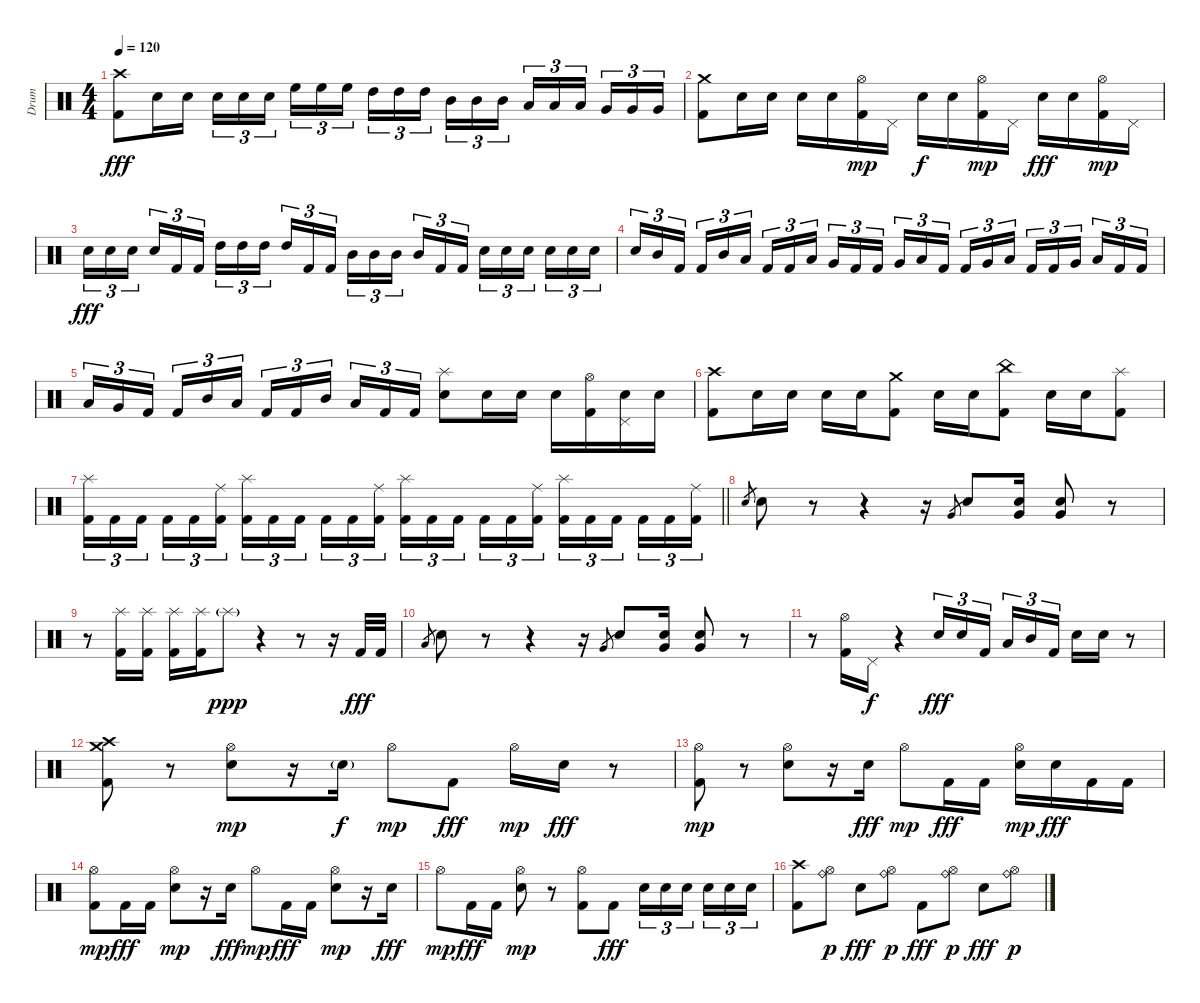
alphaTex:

\track ("Drum" "Drum") {instrument percussion}
\staff {score}
\articulation defaults
\ts (4 4)
\tempo 120
\clef neutral
\ks c
("Kick (hit) 2" "Crash high (hit)").8{dy fff} "Electric Snare (hit)".16 "Electric Snare (hit)".16 "Electric Snare (hit)".16{tu (3 2)} "Electric Snare (hit)".16{tu (3 2)} "Electric Snare (hit)".16{tu (3 2) beam splitsecondary} "High Floor Tom (hit)".16{tu (3 2)} "High Floor Tom (hit)".16{tu (3 2)} "High Floor Tom (hit)".16{tu (3 2)} "High Tom (hit)".16{tu (3 2)} "High Tom (hit)".16{tu (3 2)} "High Tom (hit)".16{tu (3 2) beam splitsecondary} "Mid Tom (hit)".16{tu (3 2)} "Mid Tom (hit)".16{tu (3 2)} "Mid Tom (hit)".16{tu (3 2)} "Low Tom (hit)".16{tu (3 2)} "Low Tom (hit)".16{tu (3 2)} "Low Tom (hit)".16{tu (3 2) beam splitsecondary} "Very Low Tom (hit)".16{tu (3 2)} "Very Low Tom (hit)".16{tu (3 2)} "Very Low Tom (hit)".16{tu (3 2)} |
("Kick (hit) 2" "Crash medium (hit)").8 "Electric Snare (hit)".16 "Electric Snare (hit)".16 "Electric Snare (hit)".16 "Electric Snare (hit)".16 ("Kick (hit) 2" "Hi-Hat (open)").16{dy mp} "Pedal Hi-Hat (hit)".16 "Electric Snare (hit)".16{dy f} "Electric Snare (hit)".16 ("Kick (hit) 2" "Hi-Hat (open)").16{dy mp} "Pedal Hi-Hat (hit)".16 "Electric Snare (hit)".16{dy fff} "Electric Snare (hit)".16 ("Kick (hit) 2" "Hi-Hat (open)").16{dy mp} "Pedal Hi-Hat (hit)".16 |
"Electric Snare (hit)".16{tu (3 2) dy fff} "Electric Snare (hit)".16{tu (3 2)} "Electric Snare (hit)".16{tu (3 2) beam splitsecondary} "Electric Snare (hit)".16{tu (3 2)} "Kick (hit) 2".16{tu (3 2)} "Kick (hit) 2".16{tu (3 2)} "High Tom (hit)".16{tu (3 2)} "High Tom (hit)".16{tu (3 2)} "High Tom (hit)".16{tu (3 2) beam splitsecondary} "High Tom (hit)".16{tu (3 2)} "Kick (hit) 2".16{tu (3 2)} "Kick (hit) 2".16{tu (3 2)} "Mid Tom (hit)".16{tu (3 2)} "Mid Tom (hit)".16{tu (3 2)} "Mid Tom (hit)".16{tu (3 2) beam splitsecondary} "Mid Tom (hit)".16{tu (3 2)} "Kick (hit) 2".16{tu (3 2)} "Kick (hit) 2".16{tu (3 2)} "Electric Snare (hit)".16{tu (3 2)} "Electric Snare (hit)".16{tu (3 2)} "Electric Snare (hit)".16{tu (3 2) beam splitsecondary} "Electric Snare (hit)".16{tu (3 2)} "Electric Snare (hit)".16{tu (3 2)} "Electric Snare (hit)".16{tu (3 2)} |
"Electric Snare (hit)".16{tu (3 2)} "Mid Tom (hit)".16{tu (3 2)} "Kick (hit) 2".16{tu (3 2) beam splitsecondary} "Kick (hit) 2".16{tu (3 2)} "Mid Tom (hit)".16{tu (3 2)} "Low Tom (hit)".16{tu (3 2)} "Kick (hit) 2".16{tu (3 2)} "Kick (hit) 2".16{tu (3 2)} "Low Tom (hit)".16{tu (3 2) beam splitsecondary} "Very Low Tom (hit)".16{tu (3 2)} "Kick (hit) 2".16{tu (3 2)} "Kick (hit) 2".16{tu (3 2)} "Very Low Tom (hit)".16{tu (3 2)} "Low Floor Tom (hit)".16{tu (3 2)} "Kick (hit) 2".16{tu (3 2) beam splitsecondary} "Kick (hit) 2".16{tu (3 2)} "Very Low Tom (hit)".16{tu (3 2)} "Low Floor Tom (hit)".16{tu (3 2)} "Kick (hit) 2".16{tu (3 2)} "Kick (hit) 2".16{tu (3 2)} "Very Low Tom (hit)".16{tu (3 2) beam splitsecondary} "Low Floor Tom (hit)".16{tu (3 2)} "Kick (hit) 2".16{tu (3 2)} "Kick (hit) 2".16{tu (3 2)} |
"Low Tom (hit)".16{tu (3 2)} "Very Low Tom (hit)".16{tu (3 2)} "Kick (hit) 2".16{tu (3 2) beam splitsecondary} "Kick (hit) 2".16{tu (3 2)} "Mid Tom (hit)".16{tu (3 2)} "Low Tom (hit)".16{tu (3 2)} "Kick (hit) 2".16{tu (3 2)} "Kick (hit) 2".16{tu (3 2)} "Mid Tom (hit)".16{tu (3 2) beam splitsecondary} "Low Tom (hit)".16{tu (3 2)} "Kick (hit) 2".16{tu (3 2)} "Kick (hit) 2".16{tu (3 2)} ("Electric Snare (hit)" "Splash (hit)").8 "Electric Snare (hit)".16 "Electric Snare (hit)".16 "Electric Snare (hit)".16 ("Kick (hit) 2" "Hi-Hat (open)").16 ("Electric Snare (hit)" "Pedal Hi-Hat (hit)").16 "Electric Snare (hit)".16 |
("Kick (hit) 2" "Crash high (hit)").8 "Electric Snare (hit)".16 "Electric Snare (hit)".16 "Electric Snare (hit)".16 "Electric Snare (hit)".16 ("Kick (hit) 2" "Crash medium (hit)").8 "Electric Snare (hit)".16 "Electric Snare (hit)".16 ("Kick (hit) 2" "China (hit)").8 "Electric Snare (hit)".16 "Electric Snare (hit)".16 ("Kick (hit) 2" "Splash (hit)").8 |
\barLineRight lightlight
("Kick (hit) 2" "Splash (hit)").16{tu (3 2)} "Kick (hit) 2".16{tu (3 2)} "Kick (hit) 2".16{tu (3 2) beam splitsecondary} "Kick (hit) 2".16{tu (3 2)} "Kick (hit) 2".16{tu (3 2)} ("Kick (hit) 2" "Ride (middle)").16{tu (3 2)} ("Kick (hit) 2" "Splash (hit)").16{tu (3 2)} "Kick (hit) 2".16{tu (3 2)} "Kick (hit) 2".16{tu (3 2) beam splitsecondary} "Kick (hit) 2".16{tu (3 2)} "Kick (hit) 2".16{tu (3 2)} ("Kick (hit) 2" "Ride (middle)").16{tu (3 2)} ("Kick (hit) 2" "Splash (hit)").16{tu (3 2)} "Kick (hit) 2".16{tu (3 2)} "Kick (hit) 2".16{tu (3 2) beam splitsecondary} "Kick (hit) 2".16{tu (3 2)} "Kick (hit) 2".16{tu (3 2)} ("Kick (hit) 2" "Ride (middle)").16{tu (3 2)} ("Kick (hit) 2" "Splash (hit)").16{tu (3 2)} "Kick (hit) 2".16{tu (3 2)} "Kick (hit) 2".16{tu (3 2) beam splitsecondary} "Kick (hit) 2".16{tu (3 2)} "Kick (hit) 2".16{tu (3 2)} ("Kick (hit) 2" "Ride (middle)").16{tu (3 2)} |
"Electric Snare (hit)".8{gr} "Electric Snare (hit)".8 r.8 r.4 r.16 "Very Low Tom (hit)".8{gr} "Electric Snare (hit)".8 ("Electric Snare (hit)" "Very Low Tom (hit)").16 ("Electric Snare (hit)" "Very Low Tom (hit)").8 r.8 |
r.8 ("Kick (hit) 2" "Splash (hit)").16 ("Kick (hit) 2" "Splash (hit)").16 ("Kick (hit) 2" "Splash (hit)").16 ("Kick (hit) 2" "Splash (hit)").16 "Splash (hit)"{g}.8{dy ppp} r.4 r.8 r.16 "Kick (hit) 2".32{dy fff} "Kick (hit) 2".32 |
"Low Floor Tom (hit)".8{gr} "Electric Snare (hit)".8 r.8 r.4 r.16 "Very Low Tom (hit)".8{gr} "Electric Snare (hit)".8 ("Electric Snare (hit)" "Very Low Tom (hit)").16 ("Electric Snare (hit)" "Very Low Tom (hit)").8 r.8 |
r.8 ("Kick (hit) 2" "Hi-Hat (open)").16 "Pedal Hi-Hat (hit)".16{dy f} r.4 "Electric Snare (hit)".16{tu (3 2) dy fff} "Electric Snare (hit)".16{tu (3 2)} "Kick (hit) 2".16{tu (3 2) beam splitsecondary} "Low Tom (hit)".16{tu (3 2)} "Mid Tom (hit)".16{tu (3 2)} "Kick (hit) 2".16{tu (3 2)} "Electric Snare (hit)".16 "Electric Snare (hit)".16 r.8 |
("Kick (hit) 2" "Crash high (hit)" "Crash medium (hit)").8 r.8 ("Electric Snare (hit)" "Hi-Hat (open)").8{dy mp} r.16 "Electric Snare (hit)"{g}.16{dy f} "Hi-Hat (open)".8{dy mp} "Kick (hit) 2".8{dy fff} "Hi-Hat (open)".16{dy mp} "Electric Snare (hit)".16{dy fff} r.8 |
("Kick (hit) 2" "Hi-Hat (open)").8{dy mp} r.8 ("Electric Snare (hit)" "Hi-Hat (open)").8 r.16 "Electric Snare (hit)".16{dy fff} "Hi-Hat (open)".8{dy mp} "Kick (hit) 2".16{dy fff} "Kick (hit) 2".16 ("Electric Snare (hit)" "Hi-Hat (open)").16{dy mp} "Electric Snare (hit)".16{dy fff} "Kick (hit) 2".16 "Kick (hit) 2".16 |
("Kick (hit) 2" "Hi-Hat (open)").8{dy mp} "Kick (hit) 2".16{dy fff} "Kick (hit) 2".16 ("Electric Snare (hit)" "Hi-Hat (open)").8{dy mp} r.16 "Electric Snare (hit)".16{dy fff} "Hi-Hat (open)".8{dy mp} "Kick (hit) 2".16{dy fff} "Kick (hit) 2".16 ("Electric Snare (hit)" "Hi-Hat (open)").8{dy mp} r.16 "Electric Snare (hit)".16{dy fff} |
"Hi-Hat (open)".8{dy mp} "Kick (hit) 2".16{dy fff} "Kick (hit) 2".16 ("Electric Snare (hit)" "Hi-Hat (open)").8{dy mp} r.8 ("Kick (hit) 2" "Hi-Hat (open)").8 "Kick (hit) 2".8{dy fff} "Electric Snare (hit)".16{tu (3 2)} "Electric Snare (hit)".16{tu (3 2)} "Electric Snare (hit)".16{tu (3 2) beam splitsecondary} "Electric Snare (hit)".16{tu (3 2)} "Electric Snare (hit)".16{tu (3 2)} "Electric Snare (hit)".16{tu (3 2)} |
("Kick (hit) 2" "Crash high (hit)").8 ("Ride (bell)" "Hi-Hat (open)").8{dy p} "Electric Snare (hit)".8{dy fff} ("Ride (bell)" "Hi-Hat (open)").8{dy p} "Kick (hit) 2".8{dy fff} ("Ride (bell)" "Hi-Hat (open)").8{dy p} "Electric Snare (hit)".8{dy fff} ("Ride (bell)" "Hi-Hat (open)").8{dy p}
